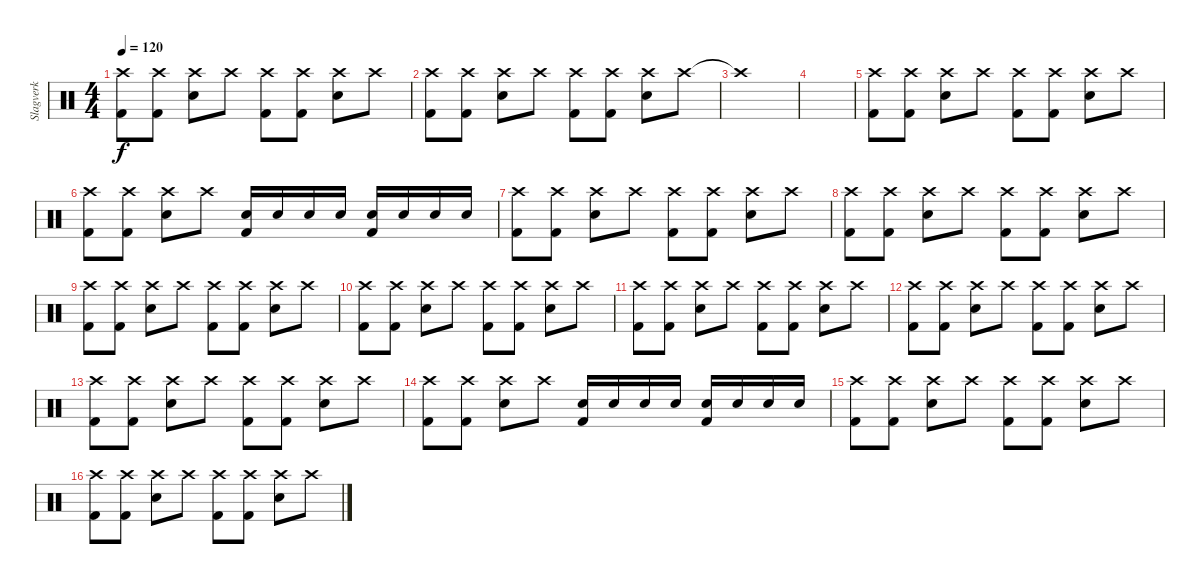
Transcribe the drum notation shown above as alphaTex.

\track ("Slagverk" "Slagverk") {instrument percussion}
\staff {score}
\articulation defaults
\ts (4 4)
\tempo 120
\clef neutral
\ks c
("Crash high (hit)" "Kick (hit) 2").8{dy f} ("Crash high (hit)" "Kick (hit) 2").8 ("Crash high (hit)" "Snare (hit) 2").8 "Crash high (hit)".8 ("Crash high (hit)" "Kick (hit) 2").8 ("Crash high (hit)" "Kick (hit) 2").8 ("Crash high (hit)" "Snare (hit) 2").8 "Crash high (hit)".8 |
("Crash high (hit)" "Kick (hit) 2").8 ("Crash high (hit)" "Kick (hit) 2").8 ("Crash high (hit)" "Snare (hit) 2").8 "Crash high (hit)".8 ("Crash high (hit)" "Kick (hit) 2").8 ("Crash high (hit)" "Kick (hit) 2").8 ("Crash high (hit)" "Snare (hit) 2").8 "Crash high (hit)".8 |
"Crash high (hit)"{t}.1 |
|
("Crash high (hit)" "Kick (hit) 2").8 ("Crash high (hit)" "Kick (hit) 2").8 ("Crash high (hit)" "Snare (hit) 2").8 "Crash high (hit)".8 ("Crash high (hit)" "Kick (hit) 2").8 ("Crash high (hit)" "Kick (hit) 2").8 ("Crash high (hit)" "Snare (hit) 2").8 "Crash high (hit)".8 |
("Crash high (hit)" "Kick (hit) 2").8 ("Crash high (hit)" "Kick (hit) 2").8 ("Crash high (hit)" "Snare (hit) 2").8 "Crash high (hit)".8 ("Snare (hit) 2" "Kick (hit) 2").16 "Snare (hit) 2".16 "Snare (hit) 2".16 "Snare (hit) 2".16 ("Snare (hit) 2" "Kick (hit) 2").16 "Snare (hit) 2".16 "Snare (hit) 2".16 "Snare (hit) 2".16 |
("Crash high (hit)" "Kick (hit) 2").8 ("Crash high (hit)" "Kick (hit) 2").8 ("Crash high (hit)" "Snare (hit) 2").8 "Crash high (hit)".8 ("Crash high (hit)" "Kick (hit) 2").8 ("Crash high (hit)" "Kick (hit) 2").8 ("Crash high (hit)" "Snare (hit) 2").8 "Crash high (hit)".8 |
("Crash high (hit)" "Kick (hit) 2").8 ("Crash high (hit)" "Kick (hit) 2").8 ("Crash high (hit)" "Snare (hit) 2").8 "Crash high (hit)".8 ("Crash high (hit)" "Kick (hit) 2").8 ("Crash high (hit)" "Kick (hit) 2").8 ("Crash high (hit)" "Snare (hit) 2").8 "Crash high (hit)".8 |
("Crash high (hit)" "Kick (hit) 2").8 ("Crash high (hit)" "Kick (hit) 2").8 ("Crash high (hit)" "Snare (hit) 2").8 "Crash high (hit)".8 ("Crash high (hit)" "Kick (hit) 2").8 ("Crash high (hit)" "Kick (hit) 2").8 ("Crash high (hit)" "Snare (hit) 2").8 "Crash high (hit)".8 |
("Crash high (hit)" "Kick (hit) 2").8 ("Crash high (hit)" "Kick (hit) 2").8 ("Crash high (hit)" "Snare (hit) 2").8 "Crash high (hit)".8 ("Crash high (hit)" "Kick (hit) 2").8 ("Crash high (hit)" "Kick (hit) 2").8 ("Crash high (hit)" "Snare (hit) 2").8 "Crash high (hit)".8 |
("Crash high (hit)" "Kick (hit) 2").8 ("Crash high (hit)" "Kick (hit) 2").8 ("Crash high (hit)" "Snare (hit) 2").8 "Crash high (hit)".8 ("Crash high (hit)" "Kick (hit) 2").8 ("Crash high (hit)" "Kick (hit) 2").8 ("Crash high (hit)" "Snare (hit) 2").8 "Crash high (hit)".8 |
("Crash high (hit)" "Kick (hit) 2").8 ("Crash high (hit)" "Kick (hit) 2").8 ("Crash high (hit)" "Snare (hit) 2").8 "Crash high (hit)".8 ("Crash high (hit)" "Kick (hit) 2").8 ("Crash high (hit)" "Kick (hit) 2").8 ("Crash high (hit)" "Snare (hit) 2").8 "Crash high (hit)".8 |
("Crash high (hit)" "Kick (hit) 2").8 ("Crash high (hit)" "Kick (hit) 2").8 ("Crash high (hit)" "Snare (hit) 2").8 "Crash high (hit)".8 ("Crash high (hit)" "Kick (hit) 2").8 ("Crash high (hit)" "Kick (hit) 2").8 ("Crash high (hit)" "Snare (hit) 2").8 "Crash high (hit)".8 |
("Crash high (hit)" "Kick (hit) 2").8 ("Crash high (hit)" "Kick (hit) 2").8 ("Crash high (hit)" "Snare (hit) 2").8 "Crash high (hit)".8 ("Snare (hit) 2" "Kick (hit) 2").16 "Snare (hit) 2".16 "Snare (hit) 2".16 "Snare (hit) 2".16 ("Snare (hit) 2" "Kick (hit) 2").16 "Snare (hit) 2".16 "Snare (hit) 2".16 "Snare (hit) 2".16 |
("Crash high (hit)" "Kick (hit) 2").8 ("Crash high (hit)" "Kick (hit) 2").8 ("Crash high (hit)" "Snare (hit) 2").8 "Crash high (hit)".8 ("Crash high (hit)" "Kick (hit) 2").8 ("Crash high (hit)" "Kick (hit) 2").8 ("Crash high (hit)" "Snare (hit) 2").8 "Crash high (hit)".8 |
("Crash high (hit)" "Kick (hit) 2").8 ("Crash high (hit)" "Kick (hit) 2").8 ("Crash high (hit)" "Snare (hit) 2").8 "Crash high (hit)".8 ("Crash high (hit)" "Kick (hit) 2").8 ("Crash high (hit)" "Kick (hit) 2").8 ("Crash high (hit)" "Snare (hit) 2").8 "Crash high (hit)".8
